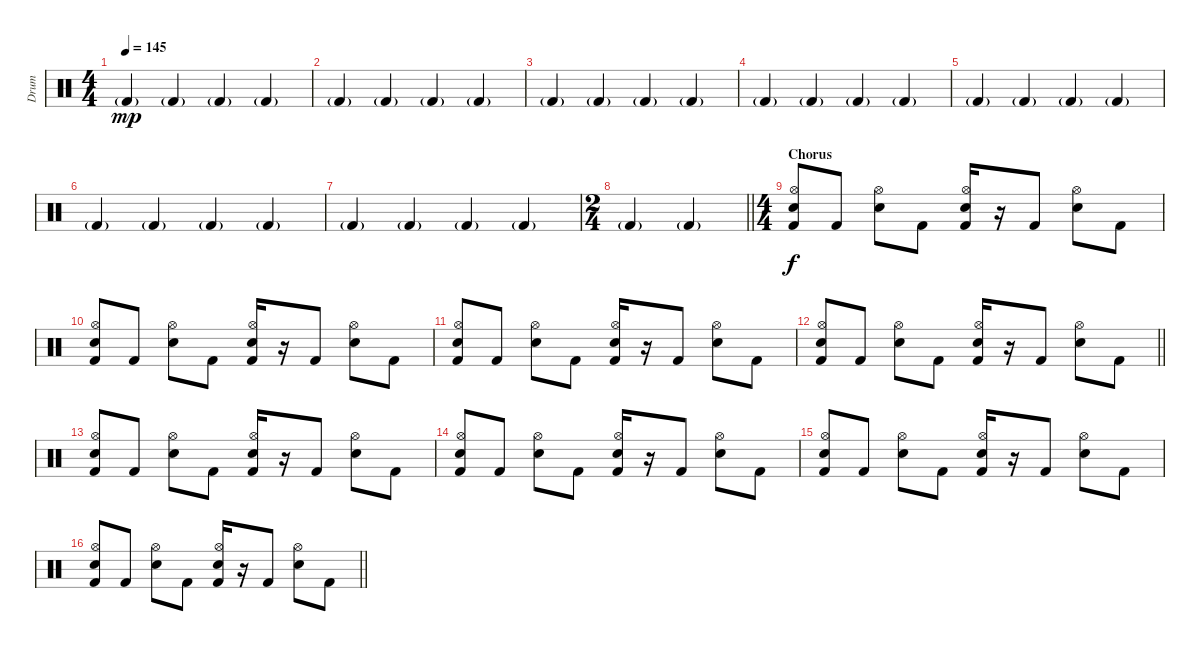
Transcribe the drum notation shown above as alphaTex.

\track ("Drum" "Drum") {instrument percussion}
\staff {score}
\articulation defaults
\ts (4 4)
\tempo 145
\clef neutral
\ks c "Kick (hit) 2"{g}.4{dy mp} "Kick (hit) 2"{g}.4 "Kick (hit) 2"{g}.4 "Kick (hit) 2"{g}.4
|
"Kick (hit) 2"{g}.4 "Kick (hit) 2"{g}.4 "Kick (hit) 2"{g}.4 "Kick (hit) 2"{g}.4 |
"Kick (hit) 2"{g}.4 "Kick (hit) 2"{g}.4 "Kick (hit) 2"{g}.4 "Kick (hit) 2"{g}.4 |
"Kick (hit) 2"{g}.4 "Kick (hit) 2"{g}.4 "Kick (hit) 2"{g}.4 "Kick (hit) 2"{g}.4 |
"Kick (hit) 2"{g}.4 "Kick (hit) 2"{g}.4 "Kick (hit) 2"{g}.4 "Kick (hit) 2"{g}.4 |
"Kick (hit) 2"{g}.4 "Kick (hit) 2"{g}.4 "Kick (hit) 2"{g}.4 "Kick (hit) 2"{g}.4 |
"Kick (hit) 2"{g}.4 "Kick (hit) 2"{g}.4 "Kick (hit) 2"{g}.4 "Kick (hit) 2"{g}.4 |
\ts (2 4)
\barLineRight lightlight "Kick (hit) 2"{g}.4 "Kick (hit) 2"{g}.4
|
\ts (4 4)
\section ("" "Chorus")
("Hi-Hat (open)" "Electric Snare (hit)" "Kick (hit) 2").8{dy f} "Kick (hit) 2".8 ("Hi-Hat (open)" "Electric Snare (hit)").8 "Kick (hit) 2".8 ("Hi-Hat (open)" "Electric Snare (hit)" "Kick (hit) 2").16 r.16 "Kick (hit) 2".8 ("Hi-Hat (open)" "Electric Snare (hit)").8 "Kick (hit) 2".8 |
("Hi-Hat (open)" "Electric Snare (hit)" "Kick (hit) 2").8 "Kick (hit) 2".8 ("Hi-Hat (open)" "Electric Snare (hit)").8 "Kick (hit) 2".8 ("Hi-Hat (open)" "Electric Snare (hit)" "Kick (hit) 2").16 r.16 "Kick (hit) 2".8 ("Hi-Hat (open)" "Electric Snare (hit)").8 "Kick (hit) 2".8 |
("Hi-Hat (open)" "Electric Snare (hit)" "Kick (hit) 2").8 "Kick (hit) 2".8 ("Hi-Hat (open)" "Electric Snare (hit)").8 "Kick (hit) 2".8 ("Hi-Hat (open)" "Electric Snare (hit)" "Kick (hit) 2").16 r.16 "Kick (hit) 2".8 ("Hi-Hat (open)" "Electric Snare (hit)").8 "Kick (hit) 2".8 |
\barLineRight lightlight
("Hi-Hat (open)" "Electric Snare (hit)" "Kick (hit) 2").8 "Kick (hit) 2".8 ("Hi-Hat (open)" "Electric Snare (hit)").8 "Kick (hit) 2".8 ("Hi-Hat (open)" "Electric Snare (hit)" "Kick (hit) 2").16 r.16 "Kick (hit) 2".8 ("Hi-Hat (open)" "Electric Snare (hit)").8 "Kick (hit) 2".8 |
("Hi-Hat (open)" "Electric Snare (hit)" "Kick (hit) 2").8 "Kick (hit) 2".8 ("Hi-Hat (open)" "Electric Snare (hit)").8 "Kick (hit) 2".8 ("Hi-Hat (open)" "Electric Snare (hit)" "Kick (hit) 2").16 r.16 "Kick (hit) 2".8 ("Hi-Hat (open)" "Electric Snare (hit)").8 "Kick (hit) 2".8 |
("Hi-Hat (open)" "Electric Snare (hit)" "Kick (hit) 2").8 "Kick (hit) 2".8 ("Hi-Hat (open)" "Electric Snare (hit)").8 "Kick (hit) 2".8 ("Hi-Hat (open)" "Electric Snare (hit)" "Kick (hit) 2").16 r.16 "Kick (hit) 2".8 ("Hi-Hat (open)" "Electric Snare (hit)").8 "Kick (hit) 2".8 |
("Hi-Hat (open)" "Electric Snare (hit)" "Kick (hit) 2").8 "Kick (hit) 2".8 ("Hi-Hat (open)" "Electric Snare (hit)").8 "Kick (hit) 2".8 ("Hi-Hat (open)" "Electric Snare (hit)" "Kick (hit) 2").16 r.16 "Kick (hit) 2".8 ("Hi-Hat (open)" "Electric Snare (hit)").8 "Kick (hit) 2".8 |
\barLineRight lightlight
("Hi-Hat (open)" "Electric Snare (hit)" "Kick (hit) 2").8 "Kick (hit) 2".8 ("Hi-Hat (open)" "Electric Snare (hit)").8 "Kick (hit) 2".8 ("Hi-Hat (open)" "Electric Snare (hit)" "Kick (hit) 2").16 r.16 "Kick (hit) 2".8 ("Hi-Hat (open)" "Electric Snare (hit)").8 "Kick (hit) 2".8
